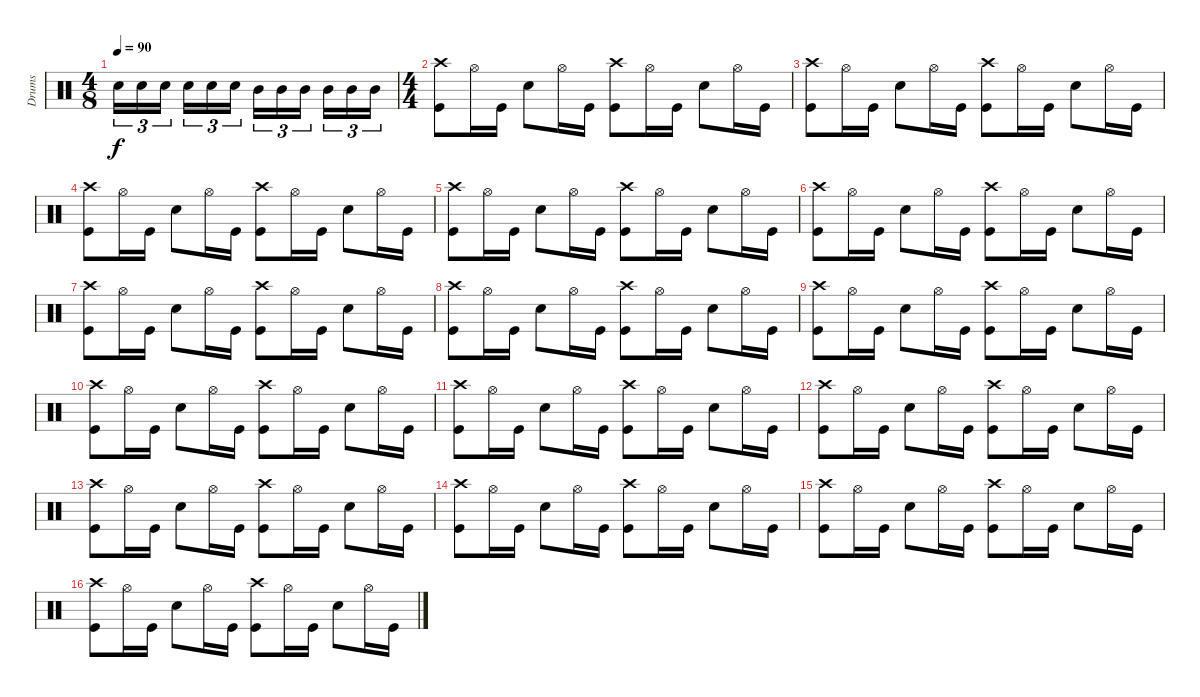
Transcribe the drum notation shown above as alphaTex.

\track ("Drums" "Drums") {instrument percussion}
\staff {score}
\articulation defaults
\ts (4 8)
\tempo 90
\clef neutral
\ks c "Snare (hit) 2".16{tu (3 2) dy f} "Snare (hit) 2".16{tu (3 2)} "Snare (hit) 2".16{tu (3 2)} "Snare (hit) 2".16{tu (3 2)} "Snare (hit) 2".16{tu (3 2)} "Snare (hit) 2".16{tu (3 2)} "Mid Tom (hit)".16{tu (3 2)} "Mid Tom (hit)".16{tu (3 2)} "Mid Tom (hit)".16{tu (3 2)} "Mid Tom (hit)".16{tu (3 2)} "Mid Tom (hit)".16{tu (3 2)} "Mid Tom (hit)".16{tu (3 2)}
|
\ts (4 4)
("Kick (hit)" "Crash high (hit)").8 "Hi-Hat (open)".16 "Kick (hit)".16 "Snare (hit) 2".8 "Hi-Hat (open)".16 "Kick (hit)".16 ("Kick (hit)" "Crash high (hit)").8 "Hi-Hat (open)".16 "Kick (hit)".16 "Snare (hit) 2".8 "Hi-Hat (open)".16 "Kick (hit)".16 |
("Kick (hit)" "Crash high (hit)").8 "Hi-Hat (open)".16 "Kick (hit)".16 "Snare (hit) 2".8 "Hi-Hat (open)".16 "Kick (hit)".16 ("Kick (hit)" "Crash high (hit)").8 "Hi-Hat (open)".16 "Kick (hit)".16 "Snare (hit) 2".8 "Hi-Hat (open)".16 "Kick (hit)".16 |
("Kick (hit)" "Crash high (hit)").8 "Hi-Hat (open)".16 "Kick (hit)".16 "Snare (hit) 2".8 "Hi-Hat (open)".16 "Kick (hit)".16 ("Kick (hit)" "Crash high (hit)").8 "Hi-Hat (open)".16 "Kick (hit)".16 "Snare (hit) 2".8 "Hi-Hat (open)".16 "Kick (hit)".16 |
("Kick (hit)" "Crash high (hit)").8 "Hi-Hat (open)".16 "Kick (hit)".16 "Snare (hit) 2".8 "Hi-Hat (open)".16 "Kick (hit)".16 ("Kick (hit)" "Crash high (hit)").8 "Hi-Hat (open)".16 "Kick (hit)".16 "Snare (hit) 2".8 "Hi-Hat (open)".16 "Kick (hit)".16 |
("Kick (hit)" "Crash high (hit)").8 "Hi-Hat (open)".16 "Kick (hit)".16 "Snare (hit) 2".8 "Hi-Hat (open)".16 "Kick (hit)".16 ("Kick (hit)" "Crash high (hit)").8 "Hi-Hat (open)".16 "Kick (hit)".16 "Snare (hit) 2".8 "Hi-Hat (open)".16 "Kick (hit)".16 |
("Kick (hit)" "Crash high (hit)").8 "Hi-Hat (open)".16 "Kick (hit)".16 "Snare (hit) 2".8 "Hi-Hat (open)".16 "Kick (hit)".16 ("Kick (hit)" "Crash high (hit)").8 "Hi-Hat (open)".16 "Kick (hit)".16 "Snare (hit) 2".8 "Hi-Hat (open)".16 "Kick (hit)".16 |
("Kick (hit)" "Crash high (hit)").8 "Hi-Hat (open)".16 "Kick (hit)".16 "Snare (hit) 2".8 "Hi-Hat (open)".16 "Kick (hit)".16 ("Kick (hit)" "Crash high (hit)").8 "Hi-Hat (open)".16 "Kick (hit)".16 "Snare (hit) 2".8 "Hi-Hat (open)".16 "Kick (hit)".16 |
("Kick (hit)" "Crash high (hit)").8 "Hi-Hat (open)".16 "Kick (hit)".16 "Snare (hit) 2".8 "Hi-Hat (open)".16 "Kick (hit)".16 ("Kick (hit)" "Crash high (hit)").8 "Hi-Hat (open)".16 "Kick (hit)".16 "Snare (hit) 2".8 "Hi-Hat (open)".16 "Kick (hit)".16 |
("Kick (hit)" "Crash high (hit)").8 "Hi-Hat (open)".16 "Kick (hit)".16 "Snare (hit) 2".8 "Hi-Hat (open)".16 "Kick (hit)".16 ("Kick (hit)" "Crash high (hit)").8 "Hi-Hat (open)".16 "Kick (hit)".16 "Snare (hit) 2".8 "Hi-Hat (open)".16 "Kick (hit)".16 |
("Kick (hit)" "Crash high (hit)").8 "Hi-Hat (open)".16 "Kick (hit)".16 "Snare (hit) 2".8 "Hi-Hat (open)".16 "Kick (hit)".16 ("Kick (hit)" "Crash high (hit)").8 "Hi-Hat (open)".16 "Kick (hit)".16 "Snare (hit) 2".8 "Hi-Hat (open)".16 "Kick (hit)".16 |
("Kick (hit)" "Crash high (hit)").8 "Hi-Hat (open)".16 "Kick (hit)".16 "Snare (hit) 2".8 "Hi-Hat (open)".16 "Kick (hit)".16 ("Kick (hit)" "Crash high (hit)").8 "Hi-Hat (open)".16 "Kick (hit)".16 "Snare (hit) 2".8 "Hi-Hat (open)".16 "Kick (hit)".16 |
("Kick (hit)" "Crash high (hit)").8 "Hi-Hat (open)".16 "Kick (hit)".16 "Snare (hit) 2".8 "Hi-Hat (open)".16 "Kick (hit)".16 ("Kick (hit)" "Crash high (hit)").8 "Hi-Hat (open)".16 "Kick (hit)".16 "Snare (hit) 2".8 "Hi-Hat (open)".16 "Kick (hit)".16 |
("Kick (hit)" "Crash high (hit)").8 "Hi-Hat (open)".16 "Kick (hit)".16 "Snare (hit) 2".8 "Hi-Hat (open)".16 "Kick (hit)".16 ("Kick (hit)" "Crash high (hit)").8 "Hi-Hat (open)".16 "Kick (hit)".16 "Snare (hit) 2".8 "Hi-Hat (open)".16 "Kick (hit)".16 |
("Kick (hit)" "Crash high (hit)").8 "Hi-Hat (open)".16 "Kick (hit)".16 "Snare (hit) 2".8 "Hi-Hat (open)".16 "Kick (hit)".16 ("Kick (hit)" "Crash high (hit)").8 "Hi-Hat (open)".16 "Kick (hit)".16 "Snare (hit) 2".8 "Hi-Hat (open)".16 "Kick (hit)".16 |
("Kick (hit)" "Crash high (hit)").8 "Hi-Hat (open)".16 "Kick (hit)".16 "Snare (hit) 2".8 "Hi-Hat (open)".16 "Kick (hit)".16 ("Kick (hit)" "Crash high (hit)").8 "Hi-Hat (open)".16 "Kick (hit)".16 "Snare (hit) 2".8 "Hi-Hat (open)".16 "Kick (hit)".16
